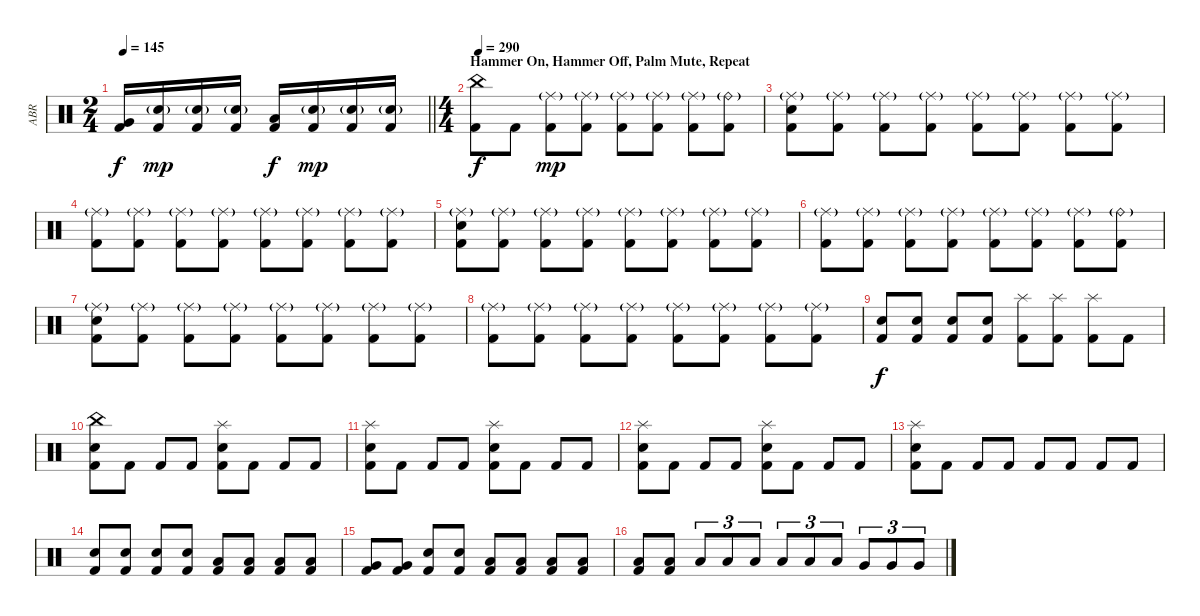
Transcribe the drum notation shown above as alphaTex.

\track ("ABR" "ABR") {instrument percussion}
\staff {score}
\articulation defaults
\ts (2 4)
\tempo 145
\clef neutral
\barLineRight lightlight
\ks c
("Very Low Tom (hit)" "Kick (hit) 2").16{dy f} ("Snare (hit) 2"{g} "Kick (hit) 2").16{dy mp} ("Snare (hit) 2"{g} "Kick (hit) 2").16 ("Snare (hit) 2"{g} "Kick (hit) 2").16 ("Low Tom (hit)" "Kick (hit) 2").16{dy f} ("Snare (hit) 2"{g} "Kick (hit) 2").16{dy mp} ("Snare (hit) 2"{g} "Kick (hit) 2").16 ("Snare (hit) 2"{g} "Kick (hit) 2").16 |
\ts (4 4)
\section ("" "Hammer On, Hammer Off, Palm Mute, Repeat")
\tempo 290
("China (hit)" "Kick (hit) 2").8{dy f} "Kick (hit) 2".8 ("Ride (middle)"{g} "Kick (hit) 2").8{dy mp} ("Ride (middle)"{g} "Kick (hit) 2").8 ("Ride (middle)"{g} "Kick (hit) 2").8 ("Ride (middle)"{g} "Kick (hit) 2").8 ("Ride (middle)"{g} "Kick (hit) 2").8 ("Ride (bell)"{g} "Kick (hit) 2").8 |
("Ride (middle)"{g} "Snare (hit) 2" "Kick (hit) 2").8 ("Ride (middle)"{g} "Kick (hit) 2").8 ("Ride (middle)"{g} "Kick (hit) 2").8 ("Ride (middle)"{g} "Kick (hit) 2").8 ("Ride (middle)"{g} "Kick (hit) 2").8 ("Ride (middle)"{g} "Kick (hit) 2").8 ("Ride (middle)"{g} "Kick (hit) 2").8 ("Ride (middle)"{g} "Kick (hit) 2").8 |
("Ride (middle)"{g} "Kick (hit) 2").8 ("Ride (middle)"{g} "Kick (hit) 2").8 ("Ride (middle)"{g} "Kick (hit) 2").8 ("Ride (middle)"{g} "Kick (hit) 2").8 ("Ride (middle)"{g} "Kick (hit) 2").8 ("Ride (middle)"{g} "Kick (hit) 2").8 ("Ride (middle)"{g} "Kick (hit) 2").8 ("Ride (middle)"{g} "Kick (hit) 2").8 |
("Ride (middle)"{g} "Snare (hit) 2" "Kick (hit) 2").8 ("Ride (middle)"{g} "Kick (hit) 2").8 ("Ride (middle)"{g} "Kick (hit) 2").8 ("Ride (middle)"{g} "Kick (hit) 2").8 ("Ride (middle)"{g} "Kick (hit) 2").8 ("Ride (middle)"{g} "Kick (hit) 2").8 ("Ride (middle)"{g} "Kick (hit) 2").8 ("Ride (middle)"{g} "Kick (hit) 2").8 |
("Ride (middle)"{g} "Kick (hit) 2").8 ("Ride (middle)"{g} "Kick (hit) 2").8 ("Ride (middle)"{g} "Kick (hit) 2").8 ("Ride (middle)"{g} "Kick (hit) 2").8 ("Ride (middle)"{g} "Kick (hit) 2").8 ("Ride (middle)"{g} "Kick (hit) 2").8 ("Ride (middle)"{g} "Kick (hit) 2").8 ("Ride (bell)"{g} "Kick (hit) 2").8 |
("Ride (middle)"{g} "Snare (hit) 2" "Kick (hit) 2").8 ("Ride (middle)"{g} "Kick (hit) 2").8 ("Ride (middle)"{g} "Kick (hit) 2").8 ("Ride (middle)"{g} "Kick (hit) 2").8 ("Ride (middle)"{g} "Kick (hit) 2").8 ("Ride (middle)"{g} "Kick (hit) 2").8 ("Ride (middle)"{g} "Kick (hit) 2").8 ("Ride (middle)"{g} "Kick (hit) 2").8 |
("Ride (middle)"{g} "Kick (hit) 2").8 ("Ride (middle)"{g} "Kick (hit) 2").8 ("Ride (middle)"{g} "Kick (hit) 2").8 ("Ride (middle)"{g} "Kick (hit) 2").8 ("Ride (middle)"{g} "Kick (hit) 2").8 ("Ride (middle)"{g} "Kick (hit) 2").8 ("Ride (middle)"{g} "Kick (hit) 2").8 ("Ride (middle)"{g} "Kick (hit) 2").8 |
("Snare (hit) 2" "Kick (hit) 2").8{dy f} ("Snare (hit) 2" "Kick (hit) 2").8 ("Snare (hit) 2" "Kick (hit) 2").8 ("Snare (hit) 2" "Kick (hit) 2").8 ("Splash (hit)" "Kick (hit) 2").8 ("Splash (hit)" "Kick (hit) 2").8 ("Splash (hit)" "Kick (hit) 2").8 "Kick (hit) 2".8 |
("China (hit)" "Snare (hit) 2" "Kick (hit) 2").8 "Kick (hit) 2".8 "Kick (hit) 2".8 "Kick (hit) 2".8 ("Splash (hit)" "Snare (hit) 2" "Kick (hit) 2").8 "Kick (hit) 2".8 "Kick (hit) 2".8 "Kick (hit) 2".8 |
("Splash (hit)" "Snare (hit) 2" "Kick (hit) 2").8 "Kick (hit) 2".8 "Kick (hit) 2".8 "Kick (hit) 2".8 ("Splash (hit)" "Snare (hit) 2" "Kick (hit) 2").8 "Kick (hit) 2".8 "Kick (hit) 2".8 "Kick (hit) 2".8 |
("Splash (hit)" "Snare (hit) 2" "Kick (hit) 2").8 "Kick (hit) 2".8 "Kick (hit) 2".8 "Kick (hit) 2".8 ("Splash (hit)" "Snare (hit) 2" "Kick (hit) 2").8 "Kick (hit) 2".8 "Kick (hit) 2".8 "Kick (hit) 2".8 |
("Splash (hit)" "Snare (hit) 2" "Kick (hit) 2").8 "Kick (hit) 2".8 "Kick (hit) 2".8 "Kick (hit) 2".8 "Kick (hit) 2".8 "Kick (hit) 2".8 "Kick (hit) 2".8 "Kick (hit) 2".8 |
("Snare (hit) 2" "Kick (hit) 2").8 ("Snare (hit) 2" "Kick (hit) 2").8 ("Snare (hit) 2" "Kick (hit) 2").8 ("Snare (hit) 2" "Kick (hit) 2").8 ("Low Tom (hit)" "Kick (hit) 2").8 ("Low Tom (hit)" "Kick (hit) 2").8 ("Low Tom (hit)" "Kick (hit) 2").8 ("Low Tom (hit)" "Kick (hit) 2").8 |
("Very Low Tom (hit)" "Kick (hit) 2").8 ("Very Low Tom (hit)" "Kick (hit) 2").8 ("Snare (hit) 2" "Kick (hit) 2").8 ("Snare (hit) 2" "Kick (hit) 2").8 ("Low Floor Tom (hit)" "Kick (hit) 2").8 ("Low Floor Tom (hit)" "Kick (hit) 2").8 ("Low Floor Tom (hit)" "Kick (hit) 2").8 ("Low Floor Tom (hit)" "Kick (hit) 2").8 |
("Low Floor Tom (hit)" "Kick (hit) 2").8 ("Low Floor Tom (hit)" "Kick (hit) 2").8 "Low Tom (hit)".8{tu (3 2)} "Low Tom (hit)".8{tu (3 2)} "Low Tom (hit)".8{tu (3 2)} "Low Tom (hit)".8{tu (3 2)} "Low Tom (hit)".8{tu (3 2)} "Low Tom (hit)".8{tu (3 2)} "Very Low Tom (hit)".8{tu (3 2)} "Very Low Tom (hit)".8{tu (3 2)} "Very Low Tom (hit)".8{tu (3 2)}
